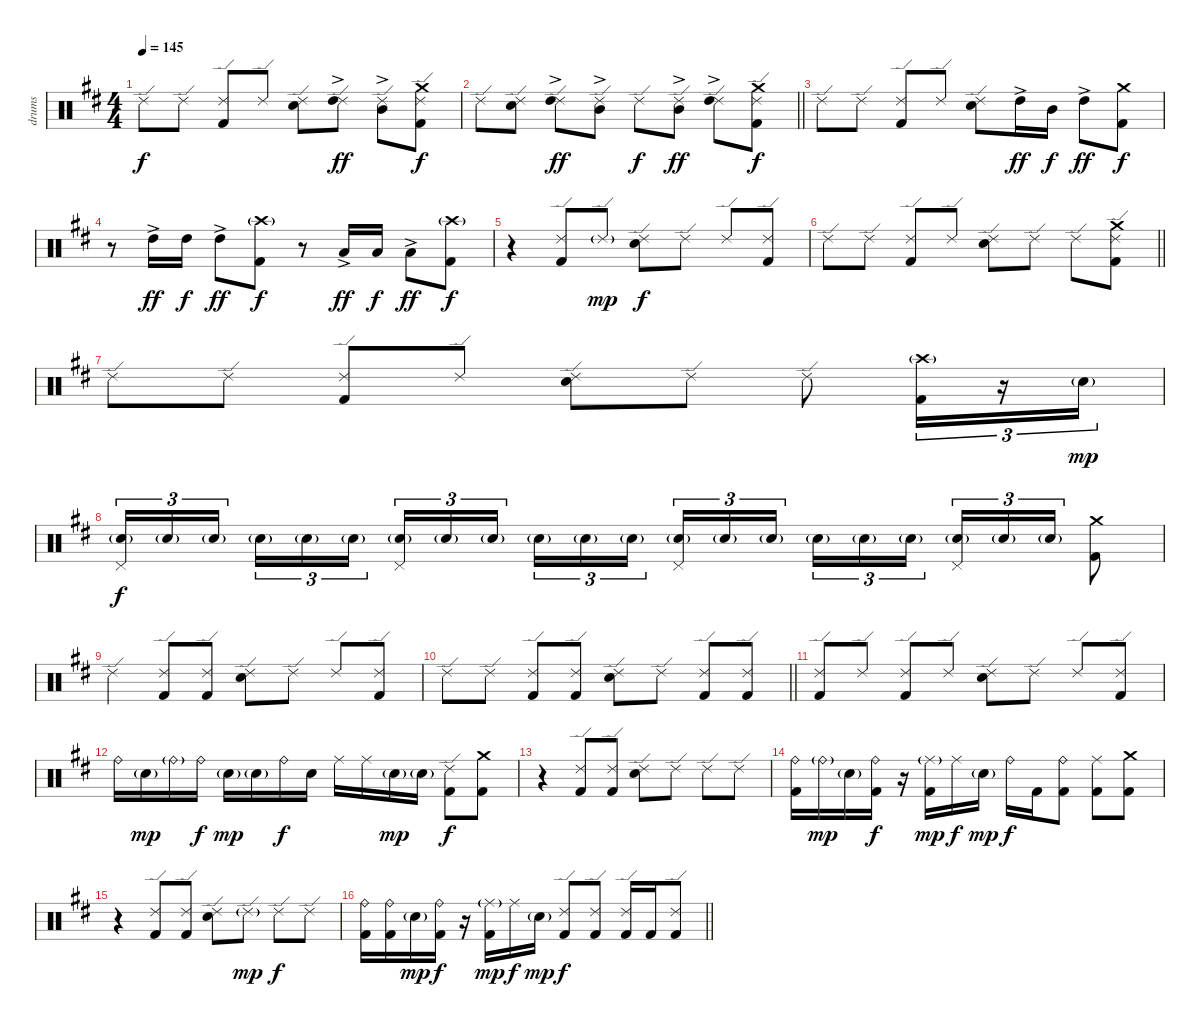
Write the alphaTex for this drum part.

\track ("drums" "drums") {instrument percussion}
\staff {score}
\articulation defaults
\ts (4 4)
\tempo 145
\clef neutral
\ks d "Ride (edge) 2".8{dy f} "Ride (edge) 2".8
("Ride (edge) 2" "Kick (hit) 2").8 "Ride (edge) 2".8 ("Ride (edge) 2" "Electric Snare (hit)").8 ("Ride (edge) 2" "High Tom (hit)"{ac}).8{dy ff} ("Ride (edge) 2" "Mid Tom (hit)"{ac}).8 ("Ride (edge) 2" "Crash medium (hit)" "Kick (hit) 2").8{dy f} |
\barLineRight lightlight "Ride (edge) 2".8
("Ride (edge) 2" "Electric Snare (hit)").8 ("Ride (edge) 2" "High Tom (hit)"{ac}).8{dy ff} ("Ride (edge) 2" "Mid Tom (hit)"{ac}).8 "Ride (edge) 2".8{dy f} ("Ride (edge) 2" "Mid Tom (hit)"{ac}).8{dy ff} ("Ride (edge) 2" "High Tom (hit)"{ac}).8 ("Ride (edge) 2" "Crash medium (hit)" "Kick (hit) 2").8{dy f} |
"Ride (edge) 2".8 "Ride (edge) 2".8 ("Ride (edge) 2" "Kick (hit) 2").8 "Ride (edge) 2".8 ("Ride (edge) 2" "Electric Snare (hit)").8 "High Tom (hit)"{ac}.16{dy ff} "Mid Tom (hit)".16{dy f} "High Tom (hit)"{ac}.8{dy ff} ("Crash medium (hit)" "Kick (hit) 2").8{dy f} |
r.8 "High Tom (hit)"{ac}.16{dy ff} "High Tom (hit)".16{dy f} "High Tom (hit)"{ac}.8{dy ff} ("Crash high (hit)"{g} "Kick (hit) 2").8{dy f} r.8 "Low Tom (hit)"{ac}.16{dy ff} "Low Tom (hit)".16{dy f} "Low Tom (hit)"{ac}.8{dy ff} ("Crash high (hit)"{g} "Kick (hit) 2").8{dy f} |
r.4 ("Ride (edge) 2" "Kick (hit) 2").8 "Ride (edge) 2"{g}.8{dy mp} ("Ride (edge) 2" "Electric Snare (hit)").8{dy f} "Ride (edge) 2".8 "Ride (edge) 2".8 ("Ride (edge) 2" "Kick (hit) 2").8 |
\barLineRight lightlight "Ride (edge) 2".8 "Ride (edge) 2".8
("Ride (edge) 2" "Kick (hit) 2").8 "Ride (edge) 2".8 ("Ride (edge) 2" "Electric Snare (hit)").8 "Ride (edge) 2".8 "Ride (edge) 2".8 ("Ride (edge) 2" "Crash medium (hit)" "Kick (hit) 2").8 |
"Ride (edge) 2".8 "Ride (edge) 2".8 ("Ride (edge) 2" "Kick (hit) 2").8 "Ride (edge) 2".8 ("Ride (edge) 2" "Electric Snare (hit)").8 "Ride (edge) 2".8 "Ride (edge) 2".8 ("Crash high (hit)"{g} "Kick (hit) 2").16{tu (3 2)} r.16{tu (3 2)} "Electric Snare (hit)"{g}.16{tu (3 2) dy mp} |
("Pedal Hi-Hat (hit)" "Electric Snare (hit)"{g}).16{tu (3 2) dy f} "Electric Snare (hit)"{g}.16{tu (3 2)} "Electric Snare (hit)"{g}.16{tu (3 2) beam splitsecondary} "Electric Snare (hit)"{g}.16{tu (3 2)} "Electric Snare (hit)"{g}.16{tu (3 2)} "Electric Snare (hit)"{g}.16{tu (3 2)} ("Pedal Hi-Hat (hit)" "Electric Snare (hit)"{g}).16{tu (3 2)} "Electric Snare (hit)"{g}.16{tu (3 2)} "Electric Snare (hit)"{g}.16{tu (3 2) beam splitsecondary} "Electric Snare (hit)"{g}.16{tu (3 2)} "Electric Snare (hit)"{g}.16{tu (3 2)} "Electric Snare (hit)"{g}.16{tu (3 2)} ("Pedal Hi-Hat (hit)" "Electric Snare (hit)"{g}).16{tu (3 2)} "Electric Snare (hit)"{g}.16{tu (3 2)} "Electric Snare (hit)"{g}.16{tu (3 2) beam splitsecondary} "Electric Snare (hit)"{g}.16{tu (3 2)} "Electric Snare (hit)"{g}.16{tu (3 2)} "Electric Snare (hit)"{g}.16{tu (3 2)} ("Pedal Hi-Hat (hit)" "Electric Snare (hit)"{g}).16{tu (3 2)} "Electric Snare (hit)"{g}.16{tu (3 2)} "Electric Snare (hit)"{g}.16{tu (3 2)} ("Crash medium (hit)" "Kick (hit) 2").8 |
"Ride (edge) 2".4 ("Ride (edge) 2" "Kick (hit) 2").8 ("Ride (edge) 2" "Kick (hit) 2").8 ("Ride (edge) 2" "Electric Snare (hit)").8 "Ride (edge) 2".8 "Ride (edge) 2".8 ("Ride (edge) 2" "Kick (hit) 2").8 |
\barLineRight lightlight "Ride (edge) 2".8 "Ride (edge) 2".8
("Ride (edge) 2" "Kick (hit) 2").8 ("Ride (edge) 2" "Kick (hit) 2").8 ("Ride (edge) 2" "Electric Snare (hit)").8 "Ride (edge) 2".8 ("Ride (edge) 2" "Kick (hit) 2").8 ("Ride (edge) 2" "Kick (hit) 2").8 |
("Ride (edge) 2" "Kick (hit) 2").8 "Ride (edge) 2".8 ("Ride (edge) 2" "Kick (hit) 2").8 "Ride (edge) 2".8 ("Ride (edge) 2" "Electric Snare (hit)").8 "Ride (edge) 2".8 "Ride (edge) 2".8 ("Ride (edge) 2" "Kick (hit) 2").8 |
"Ride (bell)".16 "Electric Snare (hit)"{g}.16{dy mp} "Ride (bell)"{g}.16 "Ride (bell)".16{dy f} "Electric Snare (hit)"{g}.16{dy mp} "Electric Snare (hit)"{g}.16 "Ride (bell)".16{dy f} "Electric Snare (hit)".16 "Ride (middle)".16 "Ride (middle)".16 "Electric Snare (hit)"{g}.16{dy mp} "Electric Snare (hit)"{g}.16 ("Ride (edge) 2" "Kick (hit) 2").8{dy f} ("Crash medium (hit)" "Kick (hit) 2").8 |
r.4 ("Ride (edge) 2" "Kick (hit) 2").8 ("Ride (edge) 2" "Kick (hit) 2").8 ("Ride (edge) 2" "Electric Snare (hit)").8 "Ride (edge) 2".8 "Ride (edge) 2".8 "Ride (edge) 2".8 |
("Ride (bell)" "Kick (hit) 2").16 "Ride (bell)"{g}.16{dy mp} "Electric Snare (hit)"{g}.16 ("Ride (bell)" "Kick (hit) 2").16{dy f} r.16 ("Ride (middle)"{g} "Kick (hit) 2").16{dy mp} "Ride (middle)".16{dy f} "Electric Snare (hit)"{g}.16{dy mp} "Ride (bell)".16{dy f} "Kick (hit) 2".16 ("Ride (bell)" "Kick (hit) 2").8 ("Ride (middle)" "Kick (hit) 2").8 ("Crash medium (hit)" "Kick (hit) 2").8 |
r.4 ("Ride (edge) 2" "Kick (hit) 2").8 ("Ride (edge) 2" "Kick (hit) 2").8 ("Ride (edge) 2" "Electric Snare (hit)").8 "Ride (edge) 2"{g}.8{dy mp} "Ride (edge) 2".8{dy f} "Ride (edge) 2".8 |
\barLineRight lightlight
("Ride (bell)" "Kick (hit) 2").16 ("Ride (bell)" "Kick (hit) 2").16 "Electric Snare (hit)"{g}.16{dy mp} ("Ride (bell)" "Kick (hit) 2").16{dy f} r.16 ("Ride (middle)"{g} "Kick (hit) 2").16{dy mp} "Ride (middle)".16{dy f} "Electric Snare (hit)"{g}.16{dy mp} ("Ride (edge) 2" "Kick (hit) 2").8{dy f} ("Ride (edge) 2" "Kick (hit) 2").8 ("Ride (edge) 2" "Kick (hit) 2").16 "Kick (hit) 2".16 ("Ride (edge) 2" "Kick (hit) 2").8
